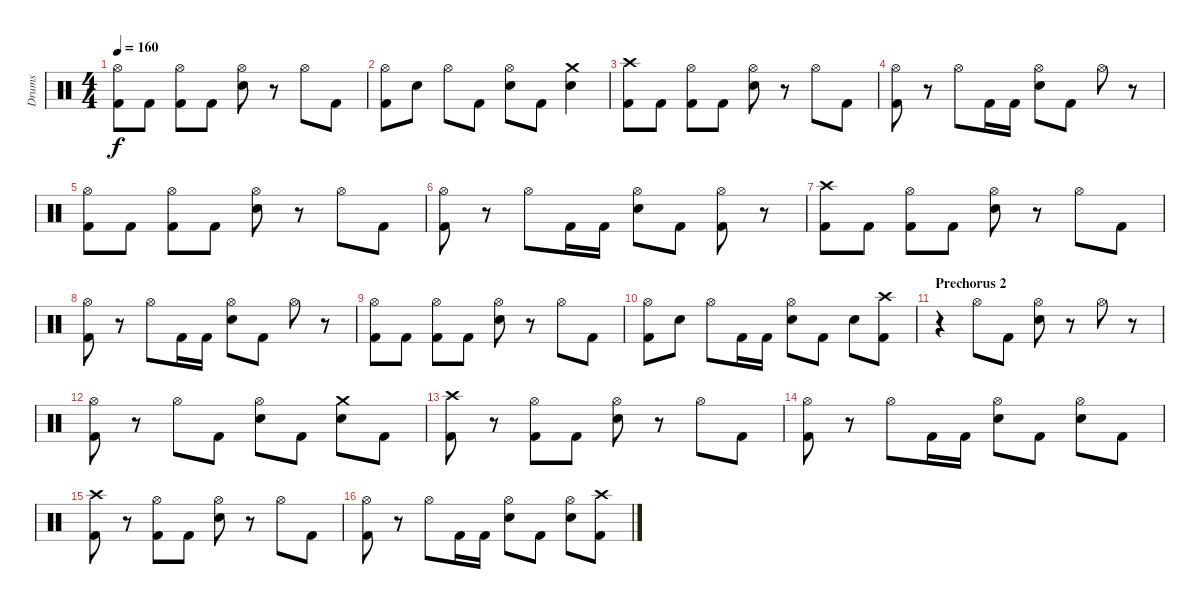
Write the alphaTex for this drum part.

\track ("Drums" "Drums") {instrument percussion}
\staff {score}
\articulation defaults
\ts (4 4)
\tempo 160
\clef neutral
\ks c
("Hi-Hat (open)" "Kick (hit) 2").8{dy f} "Kick (hit) 2".8 ("Hi-Hat (open)" "Kick (hit) 2").8 "Kick (hit) 2".8 ("Hi-Hat (open)" "Snare (hit) 2").8 r.8 "Hi-Hat (open)".8 "Kick (hit) 2".8 |
("Hi-Hat (open)" "Kick (hit) 2").8 "Snare (hit) 2".8 "Hi-Hat (open)".8 "Kick (hit) 2".8 ("Hi-Hat (open)" "Snare (hit) 2").8 "Kick (hit) 2".8 ("Crash medium (hit)" "Snare (hit) 2").4 |
("Crash high (hit)" "Kick (hit) 2").8 "Kick (hit) 2".8 ("Hi-Hat (open)" "Kick (hit) 2").8 "Kick (hit) 2".8 ("Hi-Hat (open)" "Snare (hit) 2").8 r.8 "Hi-Hat (open)".8 "Kick (hit) 2".8 |
("Hi-Hat (open)" "Kick (hit) 2").8 r.8 "Hi-Hat (open)".8 "Kick (hit) 2".16 "Kick (hit) 2".16 ("Hi-Hat (open)" "Snare (hit) 2").8 "Kick (hit) 2".8 "Hi-Hat (open)".8 r.8 |
("Hi-Hat (open)" "Kick (hit) 2").8 "Kick (hit) 2".8 ("Hi-Hat (open)" "Kick (hit) 2").8 "Kick (hit) 2".8 ("Hi-Hat (open)" "Snare (hit) 2").8 r.8 "Hi-Hat (open)".8 "Kick (hit) 2".8 |
("Hi-Hat (open)" "Kick (hit) 2").8 r.8 "Hi-Hat (open)".8 "Kick (hit) 2".16 "Kick (hit) 2".16 ("Hi-Hat (open)" "Snare (hit) 2").8 "Kick (hit) 2".8 ("Hi-Hat (open)" "Kick (hit) 2").8 r.8 |
("Crash high (hit)" "Kick (hit) 2").8 "Kick (hit) 2".8 ("Hi-Hat (open)" "Kick (hit) 2").8 "Kick (hit) 2".8 ("Hi-Hat (open)" "Snare (hit) 2").8 r.8 "Hi-Hat (open)".8 "Kick (hit) 2".8 |
("Hi-Hat (open)" "Kick (hit) 2").8 r.8 "Hi-Hat (open)".8 "Kick (hit) 2".16 "Kick (hit) 2".16 ("Hi-Hat (open)" "Snare (hit) 2").8 "Kick (hit) 2".8 "Hi-Hat (open)".8 r.8 |
("Hi-Hat (open)" "Kick (hit) 2").8 "Kick (hit) 2".8 ("Hi-Hat (open)" "Kick (hit) 2").8 "Kick (hit) 2".8 ("Hi-Hat (open)" "Snare (hit) 2").8 r.8 "Hi-Hat (open)".8 "Kick (hit) 2".8 |
("Hi-Hat (open)" "Kick (hit) 2").8 "Snare (hit) 2".8 "Hi-Hat (open)".8 "Kick (hit) 2".16 "Kick (hit) 2".16 ("Hi-Hat (open)" "Snare (hit) 2").8 "Kick (hit) 2".8 "Snare (hit) 2".8 ("Crash high (hit)" "Kick (hit) 2").8 |
\section ("" "Prechorus 2")
r.4 "Hi-Hat (open)".8 "Kick (hit) 2".8 ("Hi-Hat (open)" "Snare (hit) 2").8 r.8 "Hi-Hat (open)".8 r.8 |
("Hi-Hat (open)" "Kick (hit) 2").8 r.8 "Hi-Hat (open)".8 "Kick (hit) 2".8 ("Hi-Hat (open)" "Snare (hit) 2").8 "Kick (hit) 2".8 ("Crash medium (hit)" "Snare (hit) 2").8 "Kick (hit) 2".8 |
("Crash high (hit)" "Kick (hit) 2").8 r.8 ("Hi-Hat (open)" "Kick (hit) 2").8 "Kick (hit) 2".8 ("Hi-Hat (open)" "Snare (hit) 2").8 r.8 "Hi-Hat (open)".8 "Kick (hit) 2".8 |
("Hi-Hat (open)" "Kick (hit) 2").8 r.8 "Hi-Hat (open)".8 "Kick (hit) 2".16 "Kick (hit) 2".16 ("Hi-Hat (open)" "Snare (hit) 2").8 "Kick (hit) 2".8 ("Hi-Hat (open)" "Snare (hit) 2").8 "Kick (hit) 2".8 |
("Crash high (hit)" "Kick (hit) 2").8 r.8 ("Hi-Hat (open)" "Kick (hit) 2").8 "Kick (hit) 2".8 ("Hi-Hat (open)" "Snare (hit) 2").8 r.8 "Hi-Hat (open)".8 "Kick (hit) 2".8 |
("Hi-Hat (open)" "Kick (hit) 2").8 r.8 "Hi-Hat (open)".8 "Kick (hit) 2".16 "Kick (hit) 2".16 ("Hi-Hat (open)" "Snare (hit) 2").8 "Kick (hit) 2".8 ("Hi-Hat (open)" "Snare (hit) 2").8 ("Crash high (hit)" "Kick (hit) 2").8
